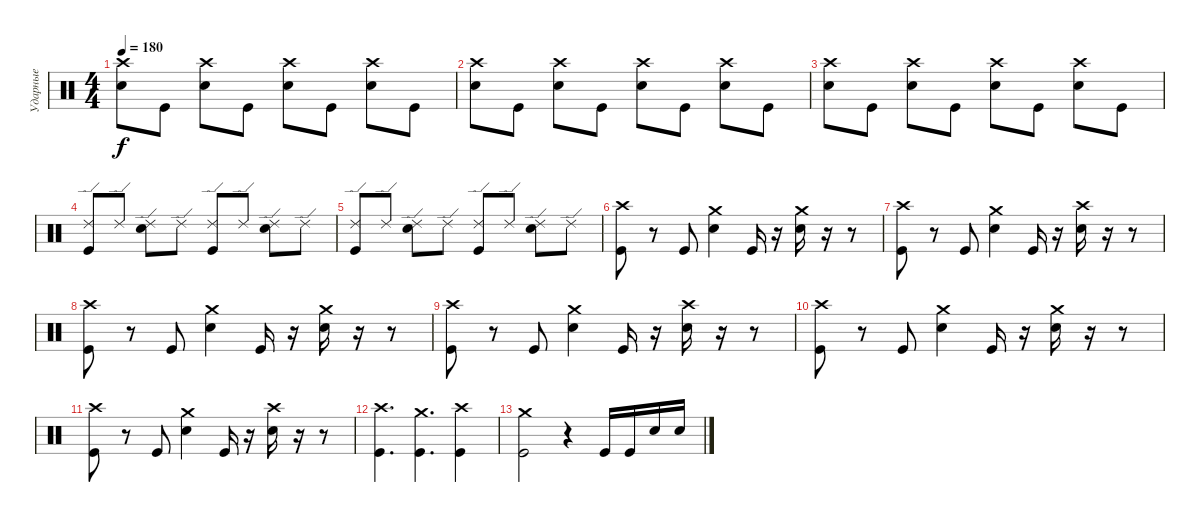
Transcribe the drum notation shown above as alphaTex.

\track ("Ударные" "Ударные") {instrument percussion}
\staff {score}
\articulation defaults
\ts (4 4)
\tempo 180
\clef neutral
\ks c
("Electric Snare (hit)" "Crash high (hit)").8{dy f} "Kick (hit)".8 ("Electric Snare (hit)" "Crash high (hit)").8 "Kick (hit)".8 ("Electric Snare (hit)" "Crash high (hit)").8 "Kick (hit)".8 ("Electric Snare (hit)" "Crash high (hit)").8 "Kick (hit)".8 |
("Electric Snare (hit)" "Crash high (hit)").8 "Kick (hit)".8 ("Electric Snare (hit)" "Crash high (hit)").8 "Kick (hit)".8 ("Electric Snare (hit)" "Crash high (hit)").8 "Kick (hit)".8 ("Electric Snare (hit)" "Crash high (hit)").8 "Kick (hit)".8 |
("Electric Snare (hit)" "Crash high (hit)").8 "Kick (hit)".8 ("Electric Snare (hit)" "Crash high (hit)").8 "Kick (hit)".8 ("Electric Snare (hit)" "Crash high (hit)").8 "Kick (hit)".8 ("Electric Snare (hit)" "Crash high (hit)").8 "Kick (hit)".8 |
("Kick (hit)" "Ride (edge) 2").8 "Ride (edge) 2".8 ("Electric Snare (hit)" "Ride (edge) 2").8 "Ride (edge) 2".8 ("Kick (hit)" "Ride (edge) 2").8 "Ride (edge) 2".8 ("Electric Snare (hit)" "Ride (edge) 2").8 "Ride (edge) 2".8 |
("Kick (hit)" "Ride (edge) 2").8 "Ride (edge) 2".8 ("Electric Snare (hit)" "Ride (edge) 2").8 "Ride (edge) 2".8 ("Kick (hit)" "Ride (edge) 2").8 "Ride (edge) 2".8 ("Electric Snare (hit)" "Ride (edge) 2").8 "Ride (edge) 2".8 |
("Crash high (hit)" "Kick (hit)").8 r.8 "Kick (hit)".8 ("Electric Snare (hit)" "Crash medium (hit)").4 "Kick (hit)".16 r.16 ("Crash medium (hit)" "Electric Snare (hit)").16 r.16 r.8 |
("Crash high (hit)" "Kick (hit)").8 r.8 "Kick (hit)".8 ("Electric Snare (hit)" "Crash medium (hit)").4 "Kick (hit)".16 r.16 ("Crash high (hit)" "Electric Snare (hit)").16 r.16 r.8 |
("Crash high (hit)" "Kick (hit)").8 r.8 "Kick (hit)".8 ("Electric Snare (hit)" "Crash medium (hit)").4 "Kick (hit)".16 r.16 ("Crash medium (hit)" "Electric Snare (hit)").16 r.16 r.8 |
("Crash high (hit)" "Kick (hit)").8 r.8 "Kick (hit)".8 ("Electric Snare (hit)" "Crash medium (hit)").4 "Kick (hit)".16 r.16 ("Crash high (hit)" "Electric Snare (hit)").16 r.16 r.8 |
("Crash high (hit)" "Kick (hit)").8 r.8 "Kick (hit)".8 ("Electric Snare (hit)" "Crash medium (hit)").4 "Kick (hit)".16 r.16 ("Crash medium (hit)" "Electric Snare (hit)").16 r.16 r.8 |
("Crash high (hit)" "Kick (hit)").8 r.8 "Kick (hit)".8 ("Electric Snare (hit)" "Crash medium (hit)").4 "Kick (hit)".16 r.16 ("Crash high (hit)" "Electric Snare (hit)").16 r.16 r.8 |
("Crash high (hit)" "Kick (hit)").4{d} ("Crash medium (hit)" "Kick (hit)").4{d} ("Crash high (hit)" "Kick (hit)").4 |
("Crash medium (hit)" "Kick (hit)").2 r.4 "Kick (hit)".16 "Kick (hit)".16 "Electric Snare (hit)".16 "Electric Snare (hit)".16
